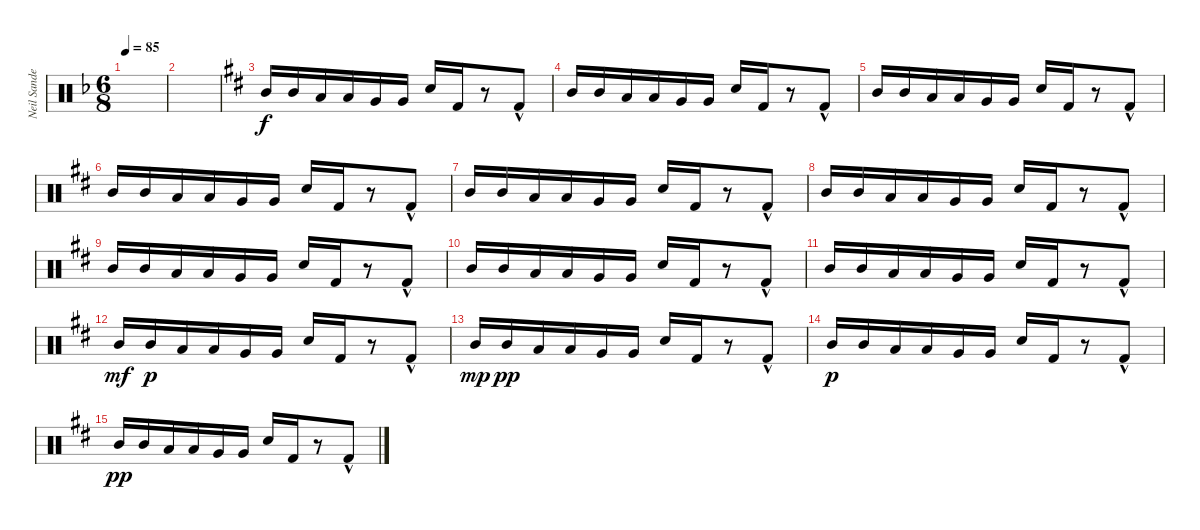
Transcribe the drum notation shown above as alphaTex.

\track ("Neil Sanderson" "Neil Sande") {instrument percussion}
\staff {score}
\articulation defaults
\ts (6 8)
\tempo 85
\clef neutral
\ks f
|
|
\ks d "Mid Tom (hit)".16 "Mid Tom (hit)".16 "Low Tom (hit)".16 "Low Tom (hit)".16 "Very Low Tom (hit)".16 "Very Low Tom (hit)".16 "Snare (hit) 2".16 "Kick (hit) 2".16
r.8 "Kick (hit) 2"{hac}.8 |
"Mid Tom (hit)".16 "Mid Tom (hit)".16 "Low Tom (hit)".16 "Low Tom (hit)".16 "Very Low Tom (hit)".16 "Very Low Tom (hit)".16 "Snare (hit) 2".16 "Kick (hit) 2".16 r.8 "Kick (hit) 2"{hac}.8 |
"Mid Tom (hit)".16 "Mid Tom (hit)".16 "Low Tom (hit)".16 "Low Tom (hit)".16 "Very Low Tom (hit)".16 "Very Low Tom (hit)".16 "Snare (hit) 2".16 "Kick (hit) 2".16 r.8 "Kick (hit) 2"{hac}.8 |
"Mid Tom (hit)".16 "Mid Tom (hit)".16 "Low Tom (hit)".16 "Low Tom (hit)".16 "Very Low Tom (hit)".16 "Very Low Tom (hit)".16 "Snare (hit) 2".16 "Kick (hit) 2".16 r.8 "Kick (hit) 2"{hac}.8 |
"Mid Tom (hit)".16 "Mid Tom (hit)".16 "Low Tom (hit)".16 "Low Tom (hit)".16 "Very Low Tom (hit)".16 "Very Low Tom (hit)".16 "Snare (hit) 2".16 "Kick (hit) 2".16 r.8 "Kick (hit) 2"{hac}.8 |
"Mid Tom (hit)".16 "Mid Tom (hit)".16 "Low Tom (hit)".16 "Low Tom (hit)".16 "Very Low Tom (hit)".16 "Very Low Tom (hit)".16 "Snare (hit) 2".16 "Kick (hit) 2".16 r.8 "Kick (hit) 2"{hac}.8 |
"Mid Tom (hit)".16 "Mid Tom (hit)".16 "Low Tom (hit)".16 "Low Tom (hit)".16 "Very Low Tom (hit)".16 "Very Low Tom (hit)".16 "Snare (hit) 2".16 "Kick (hit) 2".16 r.8 "Kick (hit) 2"{hac}.8 |
"Mid Tom (hit)".16 "Mid Tom (hit)".16 "Low Tom (hit)".16 "Low Tom (hit)".16 "Very Low Tom (hit)".16 "Very Low Tom (hit)".16 "Snare (hit) 2".16 "Kick (hit) 2".16 r.8 "Kick (hit) 2"{hac}.8 |
"Mid Tom (hit)".16{dy f} "Mid Tom (hit)".16 "Low Tom (hit)".16 "Low Tom (hit)".16 "Very Low Tom (hit)".16 "Very Low Tom (hit)".16 "Snare (hit) 2".16 "Kick (hit) 2".16 r.8 "Kick (hit) 2"{hac}.8 |
"Mid Tom (hit)".16{dy mf} "Mid Tom (hit)".16{dy p} "Low Tom (hit)".16 "Low Tom (hit)".16 "Very Low Tom (hit)".16 "Very Low Tom (hit)".16 "Snare (hit) 2".16 "Kick (hit) 2".16 r.8 "Kick (hit) 2"{hac}.8 |
"Mid Tom (hit)".16{dy mp} "Mid Tom (hit)".16{dy pp} "Low Tom (hit)".16 "Low Tom (hit)".16 "Very Low Tom (hit)".16 "Very Low Tom (hit)".16 "Snare (hit) 2".16 "Kick (hit) 2".16 r.8 "Kick (hit) 2"{hac}.8 |
"Mid Tom (hit)".16{dy p} "Mid Tom (hit)".16 "Low Tom (hit)".16 "Low Tom (hit)".16 "Very Low Tom (hit)".16 "Very Low Tom (hit)".16 "Snare (hit) 2".16 "Kick (hit) 2".16 r.8 "Kick (hit) 2"{hac}.8 |
"Mid Tom (hit)".16{dy pp} "Mid Tom (hit)".16 "Low Tom (hit)".16 "Low Tom (hit)".16 "Very Low Tom (hit)".16 "Very Low Tom (hit)".16 "Snare (hit) 2".16 "Kick (hit) 2".16 r.8 "Kick (hit) 2"{hac}.8
